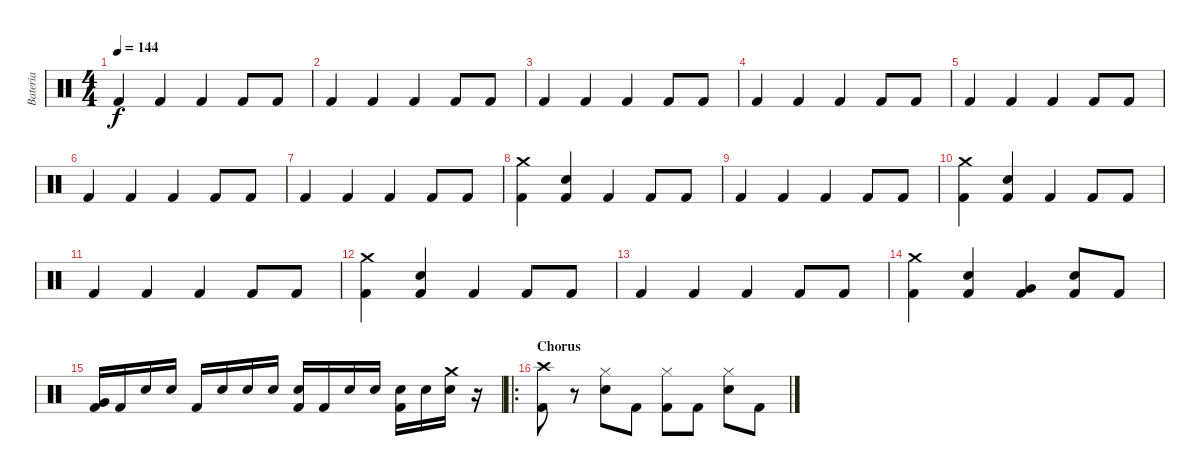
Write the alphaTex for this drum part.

\track ("Bateria" "Bateria") {instrument percussion}
\staff {score}
\articulation defaults
\ts (4 4)
\tempo 144
\clef neutral
\ks c "Kick (hit) 2".4{dy f} "Kick (hit) 2".4 "Kick (hit) 2".4 "Kick (hit) 2".8 "Kick (hit) 2".8
|
"Kick (hit) 2".4 "Kick (hit) 2".4 "Kick (hit) 2".4 "Kick (hit) 2".8 "Kick (hit) 2".8 |
"Kick (hit) 2".4 "Kick (hit) 2".4 "Kick (hit) 2".4 "Kick (hit) 2".8 "Kick (hit) 2".8 |
"Kick (hit) 2".4 "Kick (hit) 2".4 "Kick (hit) 2".4 "Kick (hit) 2".8 "Kick (hit) 2".8 |
"Kick (hit) 2".4 "Kick (hit) 2".4 "Kick (hit) 2".4 "Kick (hit) 2".8 "Kick (hit) 2".8 |
"Kick (hit) 2".4 "Kick (hit) 2".4 "Kick (hit) 2".4 "Kick (hit) 2".8 "Kick (hit) 2".8 |
"Kick (hit) 2".4 "Kick (hit) 2".4 "Kick (hit) 2".4 "Kick (hit) 2".8 "Kick (hit) 2".8 |
("Crash medium (hit)" "Kick (hit) 2").4 ("Electric Snare (hit)" "Kick (hit) 2").4 "Kick (hit) 2".4 "Kick (hit) 2".8 "Kick (hit) 2".8 |
"Kick (hit) 2".4 "Kick (hit) 2".4 "Kick (hit) 2".4 "Kick (hit) 2".8 "Kick (hit) 2".8 |
("Crash medium (hit)" "Kick (hit) 2").4 ("Electric Snare (hit)" "Kick (hit) 2").4 "Kick (hit) 2".4 "Kick (hit) 2".8 "Kick (hit) 2".8 |
"Kick (hit) 2".4 "Kick (hit) 2".4 "Kick (hit) 2".4 "Kick (hit) 2".8 "Kick (hit) 2".8 |
("Crash medium (hit)" "Kick (hit) 2").4 ("Electric Snare (hit)" "Kick (hit) 2").4 "Kick (hit) 2".4 "Kick (hit) 2".8 "Kick (hit) 2".8 |
"Kick (hit) 2".4 "Kick (hit) 2".4 "Kick (hit) 2".4 "Kick (hit) 2".8 "Kick (hit) 2".8 |
("Crash medium (hit)" "Kick (hit) 2").4 ("Electric Snare (hit)" "Kick (hit) 2").4 ("Very Low Tom (hit)" "Kick (hit) 2").4 ("Electric Snare (hit)" "Kick (hit) 2").8 "Kick (hit) 2".8 |
("Very Low Tom (hit)" "Kick (hit) 2").16 "Kick (hit) 2".16 "Electric Snare (hit)".16 "Electric Snare (hit)".16 "Kick (hit) 2".16 "Electric Snare (hit)".16 "Electric Snare (hit)".16 "Electric Snare (hit)".16 ("Electric Snare (hit)" "Kick (hit) 2").16 "Kick (hit) 2".16 "Electric Snare (hit)".16 "Electric Snare (hit)".16 ("Electric Snare (hit)" "Kick (hit) 2").16 "Electric Snare (hit)".16 ("Crash medium (hit)" "Electric Snare (hit)").16 r.16 |
\ro
\section ("" "Chorus")
("Crash high (hit)" "Kick (hit) 2").8 r.8 ("Hi-Hat (closed)" "Electric Snare (hit)").8 "Kick (hit) 2".8 ("Hi-Hat (closed)" "Kick (hit) 2").8 "Kick (hit) 2".8 ("Hi-Hat (closed)" "Electric Snare (hit)").8 "Kick (hit) 2".8
